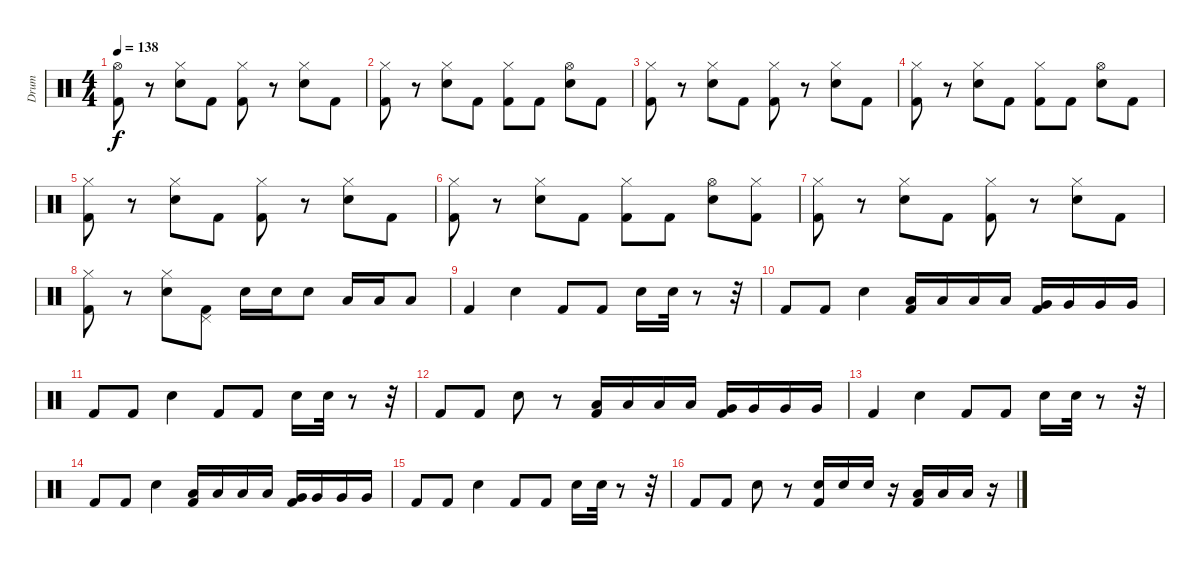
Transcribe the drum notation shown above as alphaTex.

\track ("Drum" "Drum") {instrument percussion}
\staff {score}
\articulation defaults
\ts (4 4)
\tempo 138
\clef neutral
\ks c
("Hi-Hat (open)" "Kick (hit) 2").8{dy f} r.8 ("Hi-Hat (closed)" "Electric Snare (hit)").8 "Kick (hit) 2".8 ("Hi-Hat (closed)" "Kick (hit) 2").8 r.8 ("Hi-Hat (closed)" "Electric Snare (hit)").8 "Kick (hit) 2".8 |
("Hi-Hat (closed)" "Kick (hit) 2").8 r.8 ("Hi-Hat (closed)" "Electric Snare (hit)").8 "Kick (hit) 2".8 ("Hi-Hat (closed)" "Kick (hit) 2").8 "Kick (hit) 2".8 ("Hi-Hat (open)" "Electric Snare (hit)").8 "Kick (hit) 2".8 |
("Hi-Hat (closed)" "Kick (hit) 2").8 r.8 ("Hi-Hat (closed)" "Electric Snare (hit)").8 "Kick (hit) 2".8 ("Hi-Hat (closed)" "Kick (hit) 2").8 r.8 ("Hi-Hat (closed)" "Electric Snare (hit)").8 "Kick (hit) 2".8 |
("Hi-Hat (closed)" "Kick (hit) 2").8 r.8 ("Hi-Hat (closed)" "Electric Snare (hit)").8 "Kick (hit) 2".8 ("Hi-Hat (closed)" "Kick (hit) 2").8 "Kick (hit) 2".8 ("Hi-Hat (open)" "Electric Snare (hit)").8 "Kick (hit) 2".8 |
("Hi-Hat (closed)" "Kick (hit) 2").8 r.8 ("Hi-Hat (closed)" "Electric Snare (hit)").8 "Kick (hit) 2".8 ("Hi-Hat (closed)" "Kick (hit) 2").8 r.8 ("Hi-Hat (closed)" "Electric Snare (hit)").8 "Kick (hit) 2".8 |
("Hi-Hat (closed)" "Kick (hit) 2").8 r.8 ("Hi-Hat (closed)" "Electric Snare (hit)").8 "Kick (hit) 2".8 ("Hi-Hat (closed)" "Kick (hit) 2").8 "Kick (hit) 2".8 ("Hi-Hat (open)" "Electric Snare (hit)").8 ("Hi-Hat (closed)" "Kick (hit) 2").8 |
("Hi-Hat (closed)" "Kick (hit) 2").8 r.8 ("Hi-Hat (closed)" "Electric Snare (hit)").8 "Kick (hit) 2".8 ("Hi-Hat (closed)" "Kick (hit) 2").8 r.8 ("Hi-Hat (closed)" "Electric Snare (hit)").8 "Kick (hit) 2".8 |
("Hi-Hat (closed)" "Kick (hit) 2").8 r.8 ("Hi-Hat (closed)" "Electric Snare (hit)").8 ("Pedal Hi-Hat (hit)" "Kick (hit) 2").8 "Electric Snare (hit)".16 "Electric Snare (hit)".16 "Electric Snare (hit)".8 "Low Tom (hit)".16 "Low Tom (hit)".16 "Low Tom (hit)".8 |
"Kick (hit) 2".4 "Electric Snare (hit)".4 "Kick (hit) 2".8 "Kick (hit) 2".8 "Electric Snare (hit)".16 "Electric Snare (hit)".32 r.8 r.32 |
"Kick (hit) 2".8 "Kick (hit) 2".8 "Electric Snare (hit)".4 ("Low Tom (hit)" "Kick (hit) 2").16 "Low Tom (hit)".16 "Low Tom (hit)".16 "Low Tom (hit)".16 ("Very Low Tom (hit)" "Kick (hit) 2").16 "Very Low Tom (hit)".16 "Very Low Tom (hit)".16 "Very Low Tom (hit)".16 |
"Kick (hit) 2".8 "Kick (hit) 2".8 "Electric Snare (hit)".4 "Kick (hit) 2".8 "Kick (hit) 2".8 "Electric Snare (hit)".16 "Electric Snare (hit)".32 r.8 r.32 |
"Kick (hit) 2".8 "Kick (hit) 2".8 "Electric Snare (hit)".8 r.8 ("Low Tom (hit)" "Kick (hit) 2").16 "Low Tom (hit)".16 "Low Tom (hit)".16 "Low Tom (hit)".16 ("Very Low Tom (hit)" "Kick (hit) 2").16 "Very Low Tom (hit)".16 "Very Low Tom (hit)".16 "Very Low Tom (hit)".16 |
"Kick (hit) 2".4 "Electric Snare (hit)".4 "Kick (hit) 2".8 "Kick (hit) 2".8 "Electric Snare (hit)".16 "Electric Snare (hit)".32 r.8 r.32 |
"Kick (hit) 2".8 "Kick (hit) 2".8 "Electric Snare (hit)".4 ("Low Tom (hit)" "Kick (hit) 2").16 "Low Tom (hit)".16 "Low Tom (hit)".16 "Low Tom (hit)".16 ("Very Low Tom (hit)" "Kick (hit) 2").16 "Very Low Tom (hit)".16 "Very Low Tom (hit)".16 "Very Low Tom (hit)".16 |
"Kick (hit) 2".8 "Kick (hit) 2".8 "Electric Snare (hit)".4 "Kick (hit) 2".8 "Kick (hit) 2".8 "Electric Snare (hit)".16 "Electric Snare (hit)".32 r.8 r.32 |
"Kick (hit) 2".8 "Kick (hit) 2".8 "Electric Snare (hit)".8 r.8 ("Electric Snare (hit)" "Kick (hit) 2").16 "Electric Snare (hit)".16 "Electric Snare (hit)".16 r.16 ("Low Tom (hit)" "Kick (hit) 2").16 "Low Tom (hit)".16 "Low Tom (hit)".16 r.16
